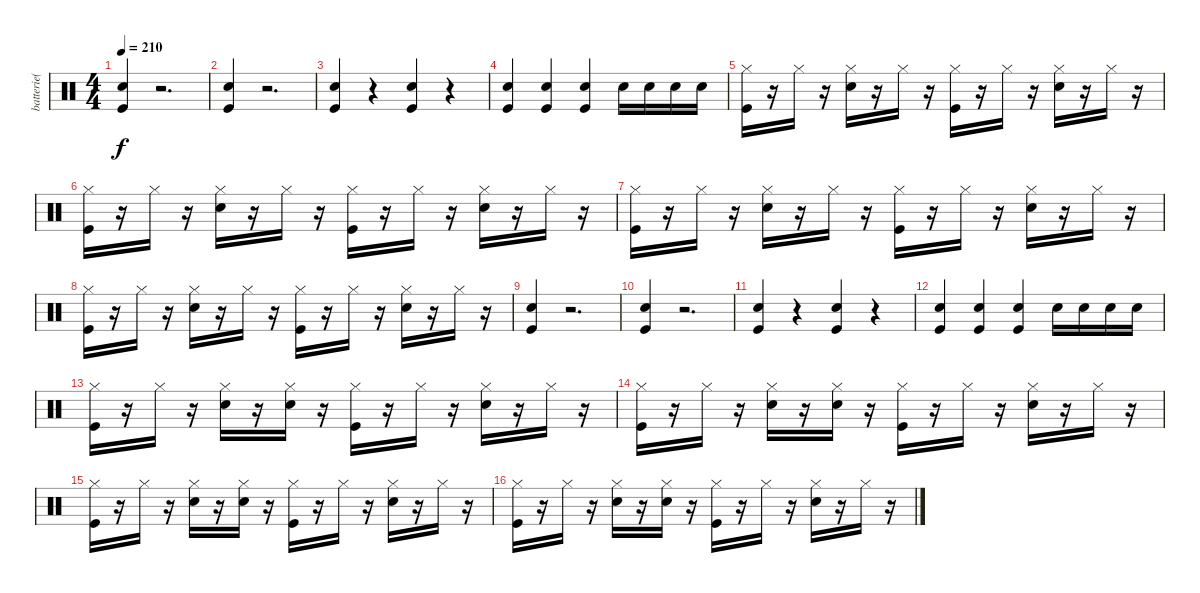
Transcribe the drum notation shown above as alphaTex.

\track ("batterie( Michael Davison )" "batterie( ") {instrument percussion}
\staff {score}
\articulation defaults
\ts (4 4)
\tempo 210
\clef neutral
\ks c
("Snare (hit) 2" "Kick (hit)").4{dy f} r.2{d} |
("Snare (hit) 2" "Kick (hit)").4 r.2{d} |
("Snare (hit) 2" "Kick (hit)").4 r.4 ("Snare (hit) 2" "Kick (hit)").4 r.4 |
("Snare (hit) 2" "Kick (hit)").4 ("Snare (hit) 2" "Kick (hit)").4 ("Snare (hit) 2" "Kick (hit)").4 "Snare (hit) 2".16 "Snare (hit) 2".16 "Snare (hit) 2".16 "Snare (hit) 2".16 |
("Hi-Hat (closed)" "Kick (hit)").16 r.16 "Hi-Hat (closed)".16 r.16 ("Hi-Hat (closed)" "Snare (hit) 2").16 r.16 "Hi-Hat (closed)".16 r.16 ("Hi-Hat (closed)" "Kick (hit)").16 r.16 "Hi-Hat (closed)".16 r.16 ("Hi-Hat (closed)" "Snare (hit) 2").16 r.16 "Hi-Hat (closed)".16 r.16 |
("Hi-Hat (closed)" "Kick (hit)").16 r.16 "Hi-Hat (closed)".16 r.16 ("Hi-Hat (closed)" "Snare (hit) 2").16 r.16 "Hi-Hat (closed)".16 r.16 ("Hi-Hat (closed)" "Kick (hit)").16 r.16 "Hi-Hat (closed)".16 r.16 ("Hi-Hat (closed)" "Snare (hit) 2").16 r.16 "Hi-Hat (closed)".16 r.16 |
("Hi-Hat (closed)" "Kick (hit)").16 r.16 "Hi-Hat (closed)".16 r.16 ("Hi-Hat (closed)" "Snare (hit) 2").16 r.16 "Hi-Hat (closed)".16 r.16 ("Hi-Hat (closed)" "Kick (hit)").16 r.16 "Hi-Hat (closed)".16 r.16 ("Hi-Hat (closed)" "Snare (hit) 2").16 r.16 "Hi-Hat (closed)".16 r.16 |
("Hi-Hat (closed)" "Kick (hit)").16 r.16 "Hi-Hat (closed)".16 r.16 ("Hi-Hat (closed)" "Snare (hit) 2").16 r.16 "Hi-Hat (closed)".16 r.16 ("Hi-Hat (closed)" "Kick (hit)").16 r.16 "Hi-Hat (closed)".16 r.16 ("Hi-Hat (closed)" "Snare (hit) 2").16 r.16 "Hi-Hat (closed)".16 r.16 |
("Snare (hit) 2" "Kick (hit)").4 r.2{d} |
("Snare (hit) 2" "Kick (hit)").4 r.2{d} |
("Snare (hit) 2" "Kick (hit)").4 r.4 ("Snare (hit) 2" "Kick (hit)").4 r.4 |
("Snare (hit) 2" "Kick (hit)").4 ("Snare (hit) 2" "Kick (hit)").4 ("Snare (hit) 2" "Kick (hit)").4 "Snare (hit) 2".16 "Snare (hit) 2".16 "Snare (hit) 2".16 "Snare (hit) 2".16 |
("Hi-Hat (closed)" "Kick (hit)").16 r.16 "Hi-Hat (closed)".16 r.16 ("Hi-Hat (closed)" "Snare (hit) 2").16 r.16 ("Hi-Hat (closed)" "Snare (hit) 2").16 r.16 ("Hi-Hat (closed)" "Kick (hit)").16 r.16 "Hi-Hat (closed)".16 r.16 ("Hi-Hat (closed)" "Snare (hit) 2").16 r.16 "Hi-Hat (closed)".16 r.16 |
("Hi-Hat (closed)" "Kick (hit)").16 r.16 "Hi-Hat (closed)".16 r.16 ("Hi-Hat (closed)" "Snare (hit) 2").16 r.16 ("Hi-Hat (closed)" "Snare (hit) 2").16 r.16 ("Hi-Hat (closed)" "Kick (hit)").16 r.16 "Hi-Hat (closed)".16 r.16 ("Hi-Hat (closed)" "Snare (hit) 2").16 r.16 "Hi-Hat (closed)".16 r.16 |
("Hi-Hat (closed)" "Kick (hit)").16 r.16 "Hi-Hat (closed)".16 r.16 ("Hi-Hat (closed)" "Snare (hit) 2").16 r.16 ("Hi-Hat (closed)" "Snare (hit) 2").16 r.16 ("Hi-Hat (closed)" "Kick (hit)").16 r.16 "Hi-Hat (closed)".16 r.16 ("Hi-Hat (closed)" "Snare (hit) 2").16 r.16 "Hi-Hat (closed)".16 r.16 |
("Hi-Hat (closed)" "Kick (hit)").16 r.16 "Hi-Hat (closed)".16 r.16 ("Hi-Hat (closed)" "Snare (hit) 2").16 r.16 ("Hi-Hat (closed)" "Snare (hit) 2").16 r.16 ("Hi-Hat (closed)" "Kick (hit)").16 r.16 "Hi-Hat (closed)".16 r.16 ("Hi-Hat (closed)" "Snare (hit) 2").16 r.16 "Hi-Hat (closed)".16 r.16
